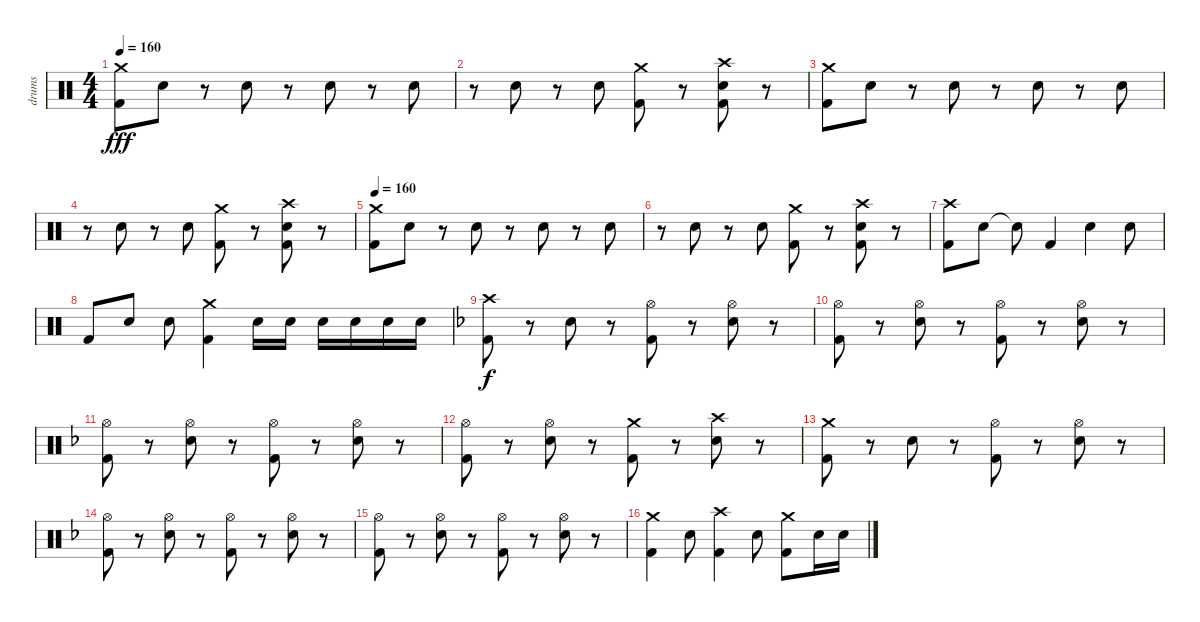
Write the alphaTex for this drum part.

\track ("drums" "drums") {instrument percussion}
\staff {score}
\articulation defaults
\ts (4 4)
\tempo 160
\clef neutral
\ks c
("Crash medium (hit)" "Kick (hit) 2").8{dy fff} "Electric Snare (hit)".8 r.8 "Electric Snare (hit)".8 r.8 "Electric Snare (hit)".8 r.8 "Electric Snare (hit)".8 |
r.8 "Electric Snare (hit)".8 r.8 "Electric Snare (hit)".8 ("Crash medium (hit)" "Kick (hit) 2").8 r.8 ("Crash high (hit)" "Electric Snare (hit)" "Kick (hit) 2").8 r.8 |
("Crash medium (hit)" "Kick (hit) 2").8 "Electric Snare (hit)".8 r.8 "Electric Snare (hit)".8 r.8 "Electric Snare (hit)".8 r.8 "Electric Snare (hit)".8 |
r.8 "Electric Snare (hit)".8 r.8 "Electric Snare (hit)".8 ("Crash medium (hit)" "Kick (hit) 2").8 r.8 ("Crash high (hit)" "Electric Snare (hit)" "Kick (hit) 2").8 r.8 |
\tempo 160
("Crash medium (hit)" "Kick (hit) 2").8 "Electric Snare (hit)".8 r.8 "Electric Snare (hit)".8 r.8 "Electric Snare (hit)".8 r.8 "Electric Snare (hit)".8 |
r.8 "Electric Snare (hit)".8 r.8 "Electric Snare (hit)".8 ("Crash medium (hit)" "Kick (hit) 2").8 r.8 ("Crash high (hit)" "Electric Snare (hit)" "Kick (hit) 2").8 r.8 |
("Crash high (hit)" "Kick (hit) 2").8 "Electric Snare (hit)".8 "Snare (hit)"{t}.8 "Kick (hit) 2".4 "Electric Snare (hit)".4 "Electric Snare (hit)".8 |
"Kick (hit) 2".8 "Electric Snare (hit)".8 "Electric Snare (hit)".8 ("Crash medium (hit)" "Kick (hit) 2").4 "Electric Snare (hit)".16 "Electric Snare (hit)".16 "Electric Snare (hit)".16 "Electric Snare (hit)".16 "Electric Snare (hit)".16 "Electric Snare (hit)".16 |
\ks f
("Crash high (hit)" "Kick (hit) 2").8{dy f} r.8 "Electric Snare (hit)".8 r.8 ("Hi-Hat (open)" "Kick (hit) 2").8 r.8 ("Hi-Hat (open)" "Electric Snare (hit)").8 r.8 |
("Hi-Hat (open)" "Kick (hit) 2").8 r.8 ("Hi-Hat (open)" "Electric Snare (hit)").8 r.8 ("Hi-Hat (open)" "Kick (hit) 2").8 r.8 ("Hi-Hat (open)" "Electric Snare (hit)").8 r.8 |
("Hi-Hat (open)" "Kick (hit) 2").8 r.8 ("Hi-Hat (open)" "Electric Snare (hit)").8 r.8 ("Hi-Hat (open)" "Kick (hit) 2").8 r.8 ("Hi-Hat (open)" "Electric Snare (hit)").8 r.8 |
("Hi-Hat (open)" "Kick (hit) 2").8 r.8 ("Hi-Hat (open)" "Electric Snare (hit)").8 r.8 ("Crash medium (hit)" "Kick (hit) 2").8 r.8 ("Crash high (hit)" "Electric Snare (hit)").8 r.8 |
("Crash medium (hit)" "Kick (hit) 2").8 r.8 "Electric Snare (hit)".8 r.8 ("Hi-Hat (open)" "Kick (hit) 2").8 r.8 ("Hi-Hat (open)" "Electric Snare (hit)").8 r.8 |
("Hi-Hat (open)" "Kick (hit) 2").8 r.8 ("Hi-Hat (open)" "Electric Snare (hit)").8 r.8 ("Hi-Hat (open)" "Kick (hit) 2").8 r.8 ("Hi-Hat (open)" "Electric Snare (hit)").8 r.8 |
("Hi-Hat (open)" "Kick (hit) 2").8 r.8 ("Hi-Hat (open)" "Electric Snare (hit)").8 r.8 ("Hi-Hat (open)" "Kick (hit) 2").8 r.8 ("Hi-Hat (open)" "Electric Snare (hit)").8 r.8 |
("Crash medium (hit)" "Kick (hit) 2").4 "Electric Snare (hit)".8 ("Crash high (hit)" "Kick (hit) 2").4 "Electric Snare (hit)".8 ("Crash medium (hit)" "Kick (hit) 2").8 "Electric Snare (hit)".16 "Electric Snare (hit)".16
